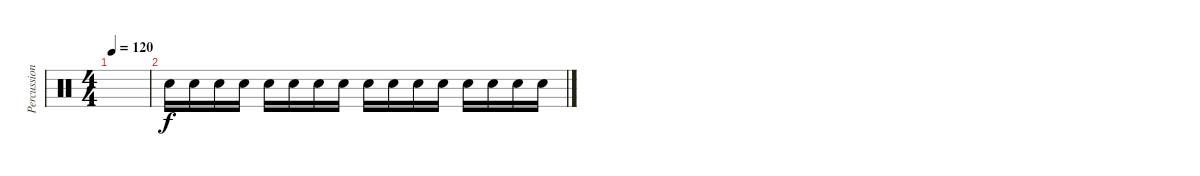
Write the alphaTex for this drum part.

\track ("Percussions" "Percussion") {instrument percussion}
\staff {score}
\articulation defaults
\ts (4 4)
\tempo 120
\clef neutral
\ks c
|
"Electric Snare (hit)".16 "Electric Snare (hit)".16 "Electric Snare (hit)".16 "Electric Snare (hit)".16 "Electric Snare (hit)".16 "Electric Snare (hit)".16 "Electric Snare (hit)".16 "Electric Snare (hit)".16 "Electric Snare (hit)".16 "Electric Snare (hit)".16 "Electric Snare (hit)".16 "Electric Snare (hit)".16 "Electric Snare (hit)".16 "Electric Snare (hit)".16 "Electric Snare (hit)".16 "Electric Snare (hit)".16
